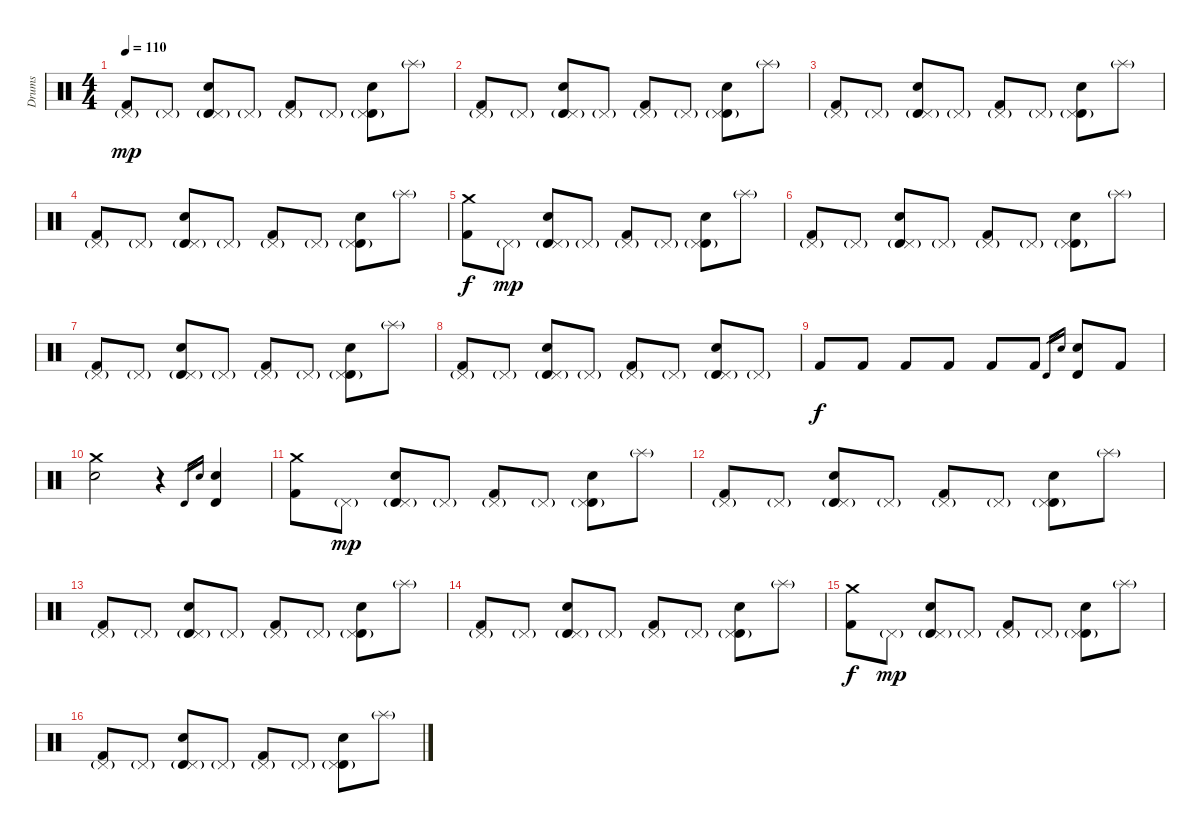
\track ("Drums" "Drums") {instrument percussion}
\staff {score}
\articulation defaults
\ts (4 4)
\tempo 110
\clef neutral
\ks c
("Kick (hit) 2" "Pedal Hi-Hat (hit)"{g}).8{dy mp} "Pedal Hi-Hat (hit)"{g}.8 ("Timbale high (hit)" "Electric Snare (hit)" "Pedal Hi-Hat (hit)"{g}).8 "Pedal Hi-Hat (hit)"{g}.8 ("Kick (hit) 2" "Pedal Hi-Hat (hit)"{g}).8 "Pedal Hi-Hat (hit)"{g}.8 ("Timbale high (hit)" "Electric Snare (hit)" "Pedal Hi-Hat (hit)"{g}).8 "Splash (hit)"{g}.8 |
("Kick (hit) 2" "Pedal Hi-Hat (hit)"{g}).8 "Pedal Hi-Hat (hit)"{g}.8 ("Timbale high (hit)" "Electric Snare (hit)" "Pedal Hi-Hat (hit)"{g}).8 "Pedal Hi-Hat (hit)"{g}.8 ("Kick (hit) 2" "Pedal Hi-Hat (hit)"{g}).8 "Pedal Hi-Hat (hit)"{g}.8 ("Timbale high (hit)" "Electric Snare (hit)" "Pedal Hi-Hat (hit)"{g}).8 "Splash (hit)"{g}.8 |
("Kick (hit) 2" "Pedal Hi-Hat (hit)"{g}).8 "Pedal Hi-Hat (hit)"{g}.8 ("Timbale high (hit)" "Electric Snare (hit)" "Pedal Hi-Hat (hit)"{g}).8 "Pedal Hi-Hat (hit)"{g}.8 ("Kick (hit) 2" "Pedal Hi-Hat (hit)"{g}).8 "Pedal Hi-Hat (hit)"{g}.8 ("Timbale high (hit)" "Electric Snare (hit)" "Pedal Hi-Hat (hit)"{g}).8 "Splash (hit)"{g}.8 |
("Kick (hit) 2" "Pedal Hi-Hat (hit)"{g}).8 "Pedal Hi-Hat (hit)"{g}.8 ("Timbale high (hit)" "Electric Snare (hit)" "Pedal Hi-Hat (hit)"{g}).8 "Pedal Hi-Hat (hit)"{g}.8 ("Kick (hit) 2" "Pedal Hi-Hat (hit)"{g}).8 "Pedal Hi-Hat (hit)"{g}.8 ("Timbale high (hit)" "Electric Snare (hit)" "Pedal Hi-Hat (hit)"{g}).8 "Splash (hit)"{g}.8 |
\section ("" "")
("Kick (hit) 2" "Crash medium (hit)").8{dy f} "Pedal Hi-Hat (hit)"{g}.8{dy mp} ("Timbale high (hit)" "Electric Snare (hit)" "Pedal Hi-Hat (hit)"{g}).8 "Pedal Hi-Hat (hit)"{g}.8 ("Kick (hit) 2" "Pedal Hi-Hat (hit)"{g}).8 "Pedal Hi-Hat (hit)"{g}.8 ("Timbale high (hit)" "Electric Snare (hit)" "Pedal Hi-Hat (hit)"{g}).8 "Splash (hit)"{g}.8 |
("Kick (hit) 2" "Pedal Hi-Hat (hit)"{g}).8 "Pedal Hi-Hat (hit)"{g}.8 ("Timbale high (hit)" "Electric Snare (hit)" "Pedal Hi-Hat (hit)"{g}).8 "Pedal Hi-Hat (hit)"{g}.8 ("Kick (hit) 2" "Pedal Hi-Hat (hit)"{g}).8 "Pedal Hi-Hat (hit)"{g}.8 ("Timbale high (hit)" "Electric Snare (hit)" "Pedal Hi-Hat (hit)"{g}).8 "Splash (hit)"{g}.8 |
("Kick (hit) 2" "Pedal Hi-Hat (hit)"{g}).8 "Pedal Hi-Hat (hit)"{g}.8 ("Timbale high (hit)" "Electric Snare (hit)" "Pedal Hi-Hat (hit)"{g}).8 "Pedal Hi-Hat (hit)"{g}.8 ("Kick (hit) 2" "Pedal Hi-Hat (hit)"{g}).8 "Pedal Hi-Hat (hit)"{g}.8 ("Timbale high (hit)" "Electric Snare (hit)" "Pedal Hi-Hat (hit)"{g}).8 "Splash (hit)"{g}.8 |
("Kick (hit) 2" "Pedal Hi-Hat (hit)"{g}).8 "Pedal Hi-Hat (hit)"{g}.8 ("Timbale high (hit)" "Electric Snare (hit)" "Pedal Hi-Hat (hit)"{g}).8 "Pedal Hi-Hat (hit)"{g}.8 ("Kick (hit) 2" "Pedal Hi-Hat (hit)"{g}).8 "Pedal Hi-Hat (hit)"{g}.8 ("Timbale high (hit)" "Electric Snare (hit)" "Pedal Hi-Hat (hit)"{g}).8 "Pedal Hi-Hat (hit)"{g}.8 |
"Kick (hit) 2".8{dy f} "Kick (hit) 2".8 "Kick (hit) 2".8 "Kick (hit) 2".8 "Kick (hit) 2".8 "Kick (hit) 2".8 "Timbale high (hit)".16{gr} "Electric Snare (hit)".16{gr} ("Timbale high (hit)" "Electric Snare (hit)").8 "Kick (hit) 2".8 |
("Electric Snare (hit)" "Crash medium (hit)").2 r.4 "Timbale high (hit)".16{gr} "Electric Snare (hit)".16{gr} ("Timbale high (hit)" "Electric Snare (hit)").4 |
("Kick (hit) 2" "Crash medium (hit)").8 "Pedal Hi-Hat (hit)"{g}.8{dy mp} ("Timbale high (hit)" "Electric Snare (hit)" "Pedal Hi-Hat (hit)"{g}).8 "Pedal Hi-Hat (hit)"{g}.8 ("Kick (hit) 2" "Pedal Hi-Hat (hit)"{g}).8 "Pedal Hi-Hat (hit)"{g}.8 ("Timbale high (hit)" "Electric Snare (hit)" "Pedal Hi-Hat (hit)"{g}).8 "Splash (hit)"{g}.8 |
("Kick (hit) 2" "Pedal Hi-Hat (hit)"{g}).8 "Pedal Hi-Hat (hit)"{g}.8 ("Timbale high (hit)" "Electric Snare (hit)" "Pedal Hi-Hat (hit)"{g}).8 "Pedal Hi-Hat (hit)"{g}.8 ("Kick (hit) 2" "Pedal Hi-Hat (hit)"{g}).8 "Pedal Hi-Hat (hit)"{g}.8 ("Timbale high (hit)" "Electric Snare (hit)" "Pedal Hi-Hat (hit)"{g}).8 "Splash (hit)"{g}.8 |
("Kick (hit) 2" "Pedal Hi-Hat (hit)"{g}).8 "Pedal Hi-Hat (hit)"{g}.8 ("Timbale high (hit)" "Electric Snare (hit)" "Pedal Hi-Hat (hit)"{g}).8 "Pedal Hi-Hat (hit)"{g}.8 ("Kick (hit) 2" "Pedal Hi-Hat (hit)"{g}).8 "Pedal Hi-Hat (hit)"{g}.8 ("Timbale high (hit)" "Electric Snare (hit)" "Pedal Hi-Hat (hit)"{g}).8 "Splash (hit)"{g}.8 |
("Kick (hit) 2" "Pedal Hi-Hat (hit)"{g}).8 "Pedal Hi-Hat (hit)"{g}.8 ("Timbale high (hit)" "Electric Snare (hit)" "Pedal Hi-Hat (hit)"{g}).8 "Pedal Hi-Hat (hit)"{g}.8 ("Kick (hit) 2" "Pedal Hi-Hat (hit)"{g}).8 "Pedal Hi-Hat (hit)"{g}.8 ("Timbale high (hit)" "Electric Snare (hit)" "Pedal Hi-Hat (hit)"{g}).8 "Splash (hit)"{g}.8 |
("Kick (hit) 2" "Crash medium (hit)").8{dy f} "Pedal Hi-Hat (hit)"{g}.8{dy mp} ("Timbale high (hit)" "Electric Snare (hit)" "Pedal Hi-Hat (hit)"{g}).8 "Pedal Hi-Hat (hit)"{g}.8 ("Kick (hit) 2" "Pedal Hi-Hat (hit)"{g}).8 "Pedal Hi-Hat (hit)"{g}.8 ("Timbale high (hit)" "Electric Snare (hit)" "Pedal Hi-Hat (hit)"{g}).8 "Splash (hit)"{g}.8 |
("Kick (hit) 2" "Pedal Hi-Hat (hit)"{g}).8 "Pedal Hi-Hat (hit)"{g}.8 ("Timbale high (hit)" "Electric Snare (hit)" "Pedal Hi-Hat (hit)"{g}).8 "Pedal Hi-Hat (hit)"{g}.8 ("Kick (hit) 2" "Pedal Hi-Hat (hit)"{g}).8 "Pedal Hi-Hat (hit)"{g}.8 ("Timbale high (hit)" "Electric Snare (hit)" "Pedal Hi-Hat (hit)"{g}).8 "Splash (hit)"{g}.8
